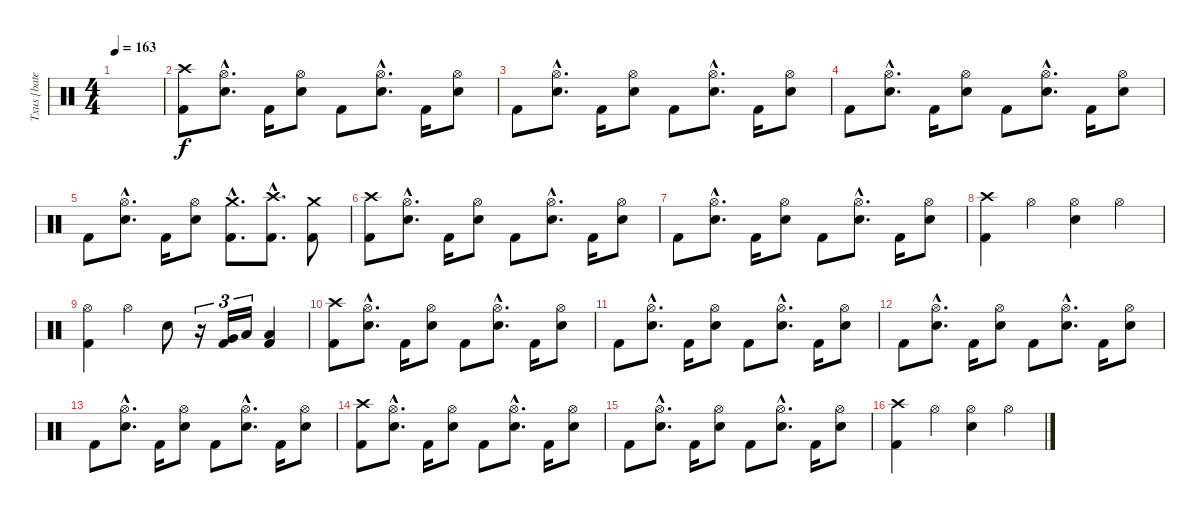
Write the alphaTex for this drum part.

\track ("Txus [bateria]" "Txus [bate") {instrument percussion}
\staff {score}
\articulation defaults
\ts (4 4)
\tempo 163
\clef neutral
\ks c
|
("Crash high (hit)" "Kick (hit) 2").8 ("Hi-Hat (open)"{hac} "Snare (hit) 2"{hac}).8{d} "Kick (hit) 2".16 ("Hi-Hat (open)" "Snare (hit) 2").8 "Kick (hit) 2".8 ("Hi-Hat (open)"{hac} "Snare (hit) 2"{hac}).8{d} "Kick (hit) 2".16 ("Hi-Hat (open)" "Snare (hit) 2").8 |
"Kick (hit) 2".8 ("Hi-Hat (open)"{hac} "Snare (hit) 2"{hac}).8{d} "Kick (hit) 2".16 ("Hi-Hat (open)" "Snare (hit) 2").8 "Kick (hit) 2".8 ("Hi-Hat (open)"{hac} "Snare (hit) 2"{hac}).8{d} "Kick (hit) 2".16 ("Hi-Hat (open)" "Snare (hit) 2").8 |
"Kick (hit) 2".8 ("Hi-Hat (open)"{hac} "Snare (hit) 2"{hac}).8{d} "Kick (hit) 2".16 ("Hi-Hat (open)" "Snare (hit) 2").8 "Kick (hit) 2".8 ("Hi-Hat (open)"{hac} "Snare (hit) 2"{hac}).8{d} "Kick (hit) 2".16 ("Hi-Hat (open)" "Snare (hit) 2").8 |
"Kick (hit) 2".8 ("Hi-Hat (open)"{hac} "Snare (hit) 2"{hac}).8{d} "Kick (hit) 2".16 ("Hi-Hat (open)" "Snare (hit) 2").8 ("Crash medium (hit)"{hac} "Kick (hit) 2"{hac}).8{d} ("Crash high (hit)"{hac} "Kick (hit) 2"{hac}).8{d} ("Crash medium (hit)" "Kick (hit) 2").8 |
("Crash high (hit)" "Kick (hit) 2").8 ("Hi-Hat (open)"{hac} "Snare (hit) 2"{hac}).8{d} "Kick (hit) 2".16 ("Hi-Hat (open)" "Snare (hit) 2").8 "Kick (hit) 2".8 ("Hi-Hat (open)"{hac} "Snare (hit) 2"{hac}).8{d} "Kick (hit) 2".16 ("Hi-Hat (open)" "Snare (hit) 2").8 |
"Kick (hit) 2".8 ("Hi-Hat (open)"{hac} "Snare (hit) 2"{hac}).8{d} "Kick (hit) 2".16 ("Hi-Hat (open)" "Snare (hit) 2").8 "Kick (hit) 2".8 ("Hi-Hat (open)"{hac} "Snare (hit) 2"{hac}).8{d} "Kick (hit) 2".16 ("Hi-Hat (open)" "Snare (hit) 2").8 |
("Crash high (hit)" "Kick (hit) 2").4 "Hi-Hat (open)".4 ("Hi-Hat (open)" "Snare (hit) 2").4 "Hi-Hat (open)".4 |
("Hi-Hat (open)" "Kick (hit) 2").4 "Hi-Hat (open)".4 "Snare (hit) 2".8 r.16{tu (3 2)} ("Very Low Tom (hit)" "Kick (hit) 2").16{tu (3 2)} "Low Tom (hit)".16{tu (3 2)} ("Low Floor Tom (hit)" "Kick (hit) 2").4 |
("Crash high (hit)" "Kick (hit) 2").8 ("Hi-Hat (open)"{hac} "Snare (hit) 2"{hac}).8{d} "Kick (hit) 2".16 ("Hi-Hat (open)" "Snare (hit) 2").8 "Kick (hit) 2".8 ("Hi-Hat (open)"{hac} "Snare (hit) 2"{hac}).8{d} "Kick (hit) 2".16 ("Hi-Hat (open)" "Snare (hit) 2").8 |
"Kick (hit) 2".8 ("Hi-Hat (open)"{hac} "Snare (hit) 2"{hac}).8{d} "Kick (hit) 2".16 ("Hi-Hat (open)" "Snare (hit) 2").8 "Kick (hit) 2".8 ("Hi-Hat (open)"{hac} "Snare (hit) 2"{hac}).8{d} "Kick (hit) 2".16 ("Hi-Hat (open)" "Snare (hit) 2").8 |
"Kick (hit) 2".8 ("Hi-Hat (open)"{hac} "Snare (hit) 2"{hac}).8{d} "Kick (hit) 2".16 ("Hi-Hat (open)" "Snare (hit) 2").8 "Kick (hit) 2".8 ("Hi-Hat (open)"{hac} "Snare (hit) 2"{hac}).8{d} "Kick (hit) 2".16 ("Hi-Hat (open)" "Snare (hit) 2").8 |
"Kick (hit) 2".8 ("Hi-Hat (open)"{hac} "Snare (hit) 2"{hac}).8{d} "Kick (hit) 2".16 ("Hi-Hat (open)" "Snare (hit) 2").8 "Kick (hit) 2".8 ("Hi-Hat (open)"{hac} "Snare (hit) 2"{hac}).8{d} "Kick (hit) 2".16 ("Hi-Hat (open)" "Snare (hit) 2").8 |
("Crash high (hit)" "Kick (hit) 2").8 ("Hi-Hat (open)"{hac} "Snare (hit) 2"{hac}).8{d} "Kick (hit) 2".16 ("Hi-Hat (open)" "Snare (hit) 2").8 "Kick (hit) 2".8 ("Hi-Hat (open)"{hac} "Snare (hit) 2"{hac}).8{d} "Kick (hit) 2".16 ("Hi-Hat (open)" "Snare (hit) 2").8 |
"Kick (hit) 2".8 ("Hi-Hat (open)"{hac} "Snare (hit) 2"{hac}).8{d} "Kick (hit) 2".16 ("Hi-Hat (open)" "Snare (hit) 2").8 "Kick (hit) 2".8 ("Hi-Hat (open)"{hac} "Snare (hit) 2"{hac}).8{d} "Kick (hit) 2".16 ("Hi-Hat (open)" "Snare (hit) 2").8 |
("Crash high (hit)" "Kick (hit) 2").4 "Hi-Hat (open)".4 ("Hi-Hat (open)" "Snare (hit) 2").4 "Hi-Hat (open)".4
